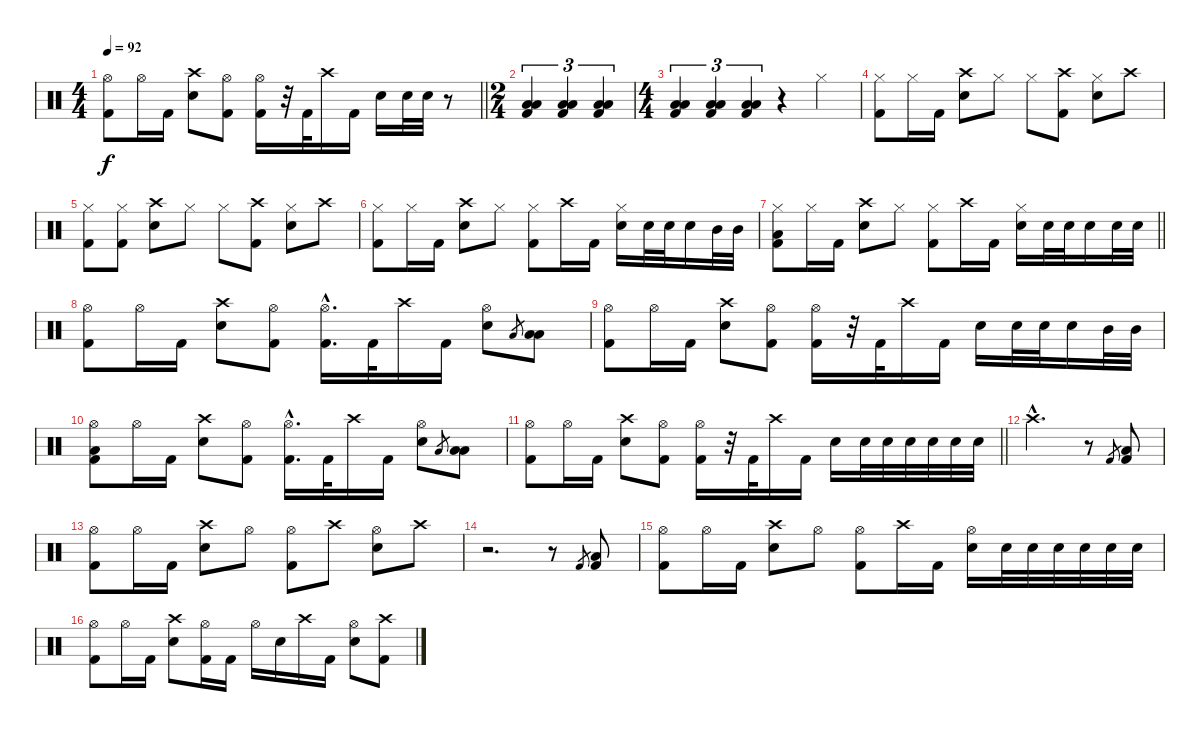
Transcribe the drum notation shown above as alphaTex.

\track "" {instrument percussion}
\staff {score}
\articulation defaults
\ts (4 4)
\tempo 92
\clef neutral
\barLineRight lightlight
\ks c
("Hi-Hat (open)" "Kick (hit) 2").8{dy f} "Hi-Hat (open)".16 "Kick (hit) 2".16 ("Crash high (hit)" "Electric Snare (hit)").8 ("Hi-Hat (open)" "Kick (hit) 2").8 ("Hi-Hat (open)" "Kick (hit) 2").16 r.32 "Kick (hit) 2".32 "Crash high (hit)".16 "Kick (hit) 2".16 "Electric Snare (hit)".16 "Electric Snare (hit)".32 "Electric Snare (hit)".32 r.8 |
\ts (2 4)
("Low Tom (hit)" "Low Tom (hit)" "Kick (hit) 2").4{tu (3 2)} ("Low Tom (hit)" "Low Tom (hit)" "Kick (hit) 2").4{tu (3 2)} ("Low Tom (hit)" "Low Tom (hit)" "Kick (hit) 2").4{tu (3 2)} |
\ts (4 4)
("Low Tom (hit)" "Low Tom (hit)" "Kick (hit) 2").4{tu (3 2)} ("Low Tom (hit)" "Low Tom (hit)" "Kick (hit) 2").4{tu (3 2)} ("Low Tom (hit)" "Low Tom (hit)" "Kick (hit) 2").4{tu (3 2)} r.4 "Hi-Hat (closed)".4 |
("Hi-Hat (closed)" "Kick (hit) 2").8 "Hi-Hat (closed)".16 "Kick (hit) 2".16 ("Crash high (hit)" "Electric Snare (hit)").8 "Hi-Hat (closed)".8 "Hi-Hat (closed)".8 ("Crash high (hit)" "Kick (hit) 2").8 ("Hi-Hat (closed)" "Electric Snare (hit)").8 "Crash high (hit)".8 |
("Hi-Hat (closed)" "Kick (hit) 2").8 ("Hi-Hat (closed)" "Kick (hit) 2").8 ("Crash high (hit)" "Electric Snare (hit)").8 "Hi-Hat (closed)".8 "Hi-Hat (closed)".8 ("Crash high (hit)" "Kick (hit) 2").8 ("Hi-Hat (closed)" "Electric Snare (hit)").8 "Crash high (hit)".8 |
("Hi-Hat (closed)" "Kick (hit) 2").8 "Hi-Hat (closed)".16 "Kick (hit) 2".16 ("Crash high (hit)" "Electric Snare (hit)").8 "Hi-Hat (closed)".8 ("Hi-Hat (closed)" "Kick (hit) 2").8 "Crash high (hit)".16 "Kick (hit) 2".16 ("Hi-Hat (closed)" "Electric Snare (hit)").16 "Electric Snare (hit)".32 "Electric Snare (hit)".32 "Electric Snare (hit)".16 "Mid Tom (hit)".32 "Mid Tom (hit)".32 |
\barLineRight lightlight
("Hi-Hat (closed)" "Low Tom (hit)" "Kick (hit) 2").8 "Hi-Hat (closed)".16 "Kick (hit) 2".16 ("Crash high (hit)" "Electric Snare (hit)").8 "Hi-Hat (closed)".8 ("Hi-Hat (closed)" "Kick (hit) 2").8 "Crash high (hit)".16 "Kick (hit) 2".16 ("Hi-Hat (closed)" "Electric Snare (hit)").16 "Electric Snare (hit)".32 "Electric Snare (hit)".32 "Electric Snare (hit)".16 "Electric Snare (hit)".32 "Electric Snare (hit)".32 |
("Hi-Hat (open)" "Kick (hit) 2").8 "Hi-Hat (open)".16 "Kick (hit) 2".16 ("Crash high (hit)" "Electric Snare (hit)").8 ("Hi-Hat (open)" "Kick (hit) 2").8 ("Hi-Hat (open)"{hac} "Kick (hit) 2"{hac}).16{d} "Kick (hit) 2".32 "Crash high (hit)".16 "Kick (hit) 2".16 ("Hi-Hat (open)" "Electric Snare (hit)").8 "Low Tom (hit)".8{gr} ("Low Tom (hit)" "Low Tom (hit)").8 |
("Hi-Hat (open)" "Kick (hit) 2").8 "Hi-Hat (open)".16 "Kick (hit) 2".16 ("Crash high (hit)" "Electric Snare (hit)").8 ("Hi-Hat (open)" "Kick (hit) 2").8 ("Hi-Hat (open)" "Kick (hit) 2").16 r.32 "Kick (hit) 2".32 "Crash high (hit)".16 "Kick (hit) 2".16 "Electric Snare (hit)".16 "Electric Snare (hit)".32 "Electric Snare (hit)".32 "Electric Snare (hit)".16 "Mid Tom (hit)".32 "Mid Tom (hit)".32 |
("Hi-Hat (open)" "Low Tom (hit)" "Kick (hit) 2").8 "Hi-Hat (open)".16 "Kick (hit) 2".16 ("Crash high (hit)" "Electric Snare (hit)").8 ("Hi-Hat (open)" "Kick (hit) 2").8 ("Hi-Hat (open)"{hac} "Kick (hit) 2"{hac}).16{d} "Kick (hit) 2".32 "Crash high (hit)".16 "Kick (hit) 2".16 ("Hi-Hat (open)" "Electric Snare (hit)").8 "Low Tom (hit)".8{gr} ("Low Tom (hit)" "Low Tom (hit)").8 |
\barLineRight lightlight
("Hi-Hat (open)" "Kick (hit) 2").8 "Hi-Hat (open)".16 "Kick (hit) 2".16 ("Crash high (hit)" "Electric Snare (hit)").8 ("Hi-Hat (open)" "Kick (hit) 2").8 ("Hi-Hat (open)" "Kick (hit) 2").16 r.32 "Kick (hit) 2".32 "Crash high (hit)".16 "Kick (hit) 2".16 "Electric Snare (hit)".16 "Electric Snare (hit)".32 "Electric Snare (hit)".32 "Electric Snare (hit)".32 "Electric Snare (hit)".32 "Electric Snare (hit)".32 "Electric Snare (hit)".32 |
"Crash high (hit)"{hac}.2{d} r.8 "Kick (hit) 2".8{gr} ("Low Tom (hit)" "Kick (hit) 2").8 |
("Hi-Hat (open)" "Kick (hit) 2").8 "Hi-Hat (open)".16 "Kick (hit) 2".16 ("Crash high (hit)" "Electric Snare (hit)").8 "Hi-Hat (open)".8 ("Hi-Hat (open)" "Kick (hit) 2").8 "Crash high (hit)".8 ("Hi-Hat (open)" "Electric Snare (hit)").8 "Crash high (hit)".8 |
r.2{d} r.8 "Kick (hit) 2".8{gr} ("Low Tom (hit)" "Kick (hit) 2").8 |
("Hi-Hat (open)" "Kick (hit) 2").8 "Hi-Hat (open)".16 "Kick (hit) 2".16 ("Crash high (hit)" "Electric Snare (hit)").8 "Hi-Hat (open)".8 ("Hi-Hat (open)" "Kick (hit) 2").8 "Crash high (hit)".16 "Kick (hit) 2".16 ("Hi-Hat (open)" "Electric Snare (hit)").16 "Electric Snare (hit)".32 "Electric Snare (hit)".32 "Electric Snare (hit)".32 "Electric Snare (hit)".32 "Electric Snare (hit)".32 "Electric Snare (hit)".32 |
("Hi-Hat (open)" "Kick (hit) 2").8 "Hi-Hat (open)".16 "Kick (hit) 2".16 ("Crash high (hit)" "Electric Snare (hit)").8 ("Hi-Hat (open)" "Kick (hit) 2").16 "Kick (hit) 2".16 "Hi-Hat (open)".16 "Electric Snare (hit)".16 "Crash high (hit)".16 "Kick (hit) 2".16 ("Hi-Hat (open)" "Electric Snare (hit)").8 ("Crash high (hit)" "Kick (hit) 2").8
